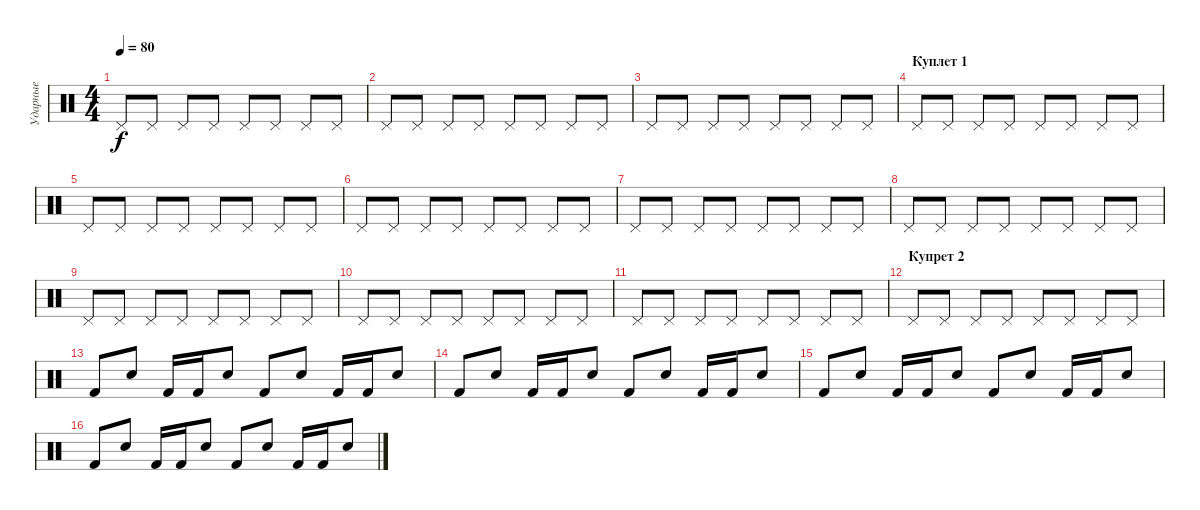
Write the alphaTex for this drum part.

\track ("Ударные" "Ударные") {instrument percussion}
\staff {score}
\articulation defaults
\ts (4 4)
\tempo 80
\clef neutral
\ks c "Pedal Hi-Hat (hit)".8{dy f} "Pedal Hi-Hat (hit)".8 "Pedal Hi-Hat (hit)".8 "Pedal Hi-Hat (hit)".8 "Pedal Hi-Hat (hit)".8 "Pedal Hi-Hat (hit)".8 "Pedal Hi-Hat (hit)".8 "Pedal Hi-Hat (hit)".8
|
"Pedal Hi-Hat (hit)".8 "Pedal Hi-Hat (hit)".8 "Pedal Hi-Hat (hit)".8 "Pedal Hi-Hat (hit)".8 "Pedal Hi-Hat (hit)".8 "Pedal Hi-Hat (hit)".8 "Pedal Hi-Hat (hit)".8 "Pedal Hi-Hat (hit)".8 |
"Pedal Hi-Hat (hit)".8 "Pedal Hi-Hat (hit)".8 "Pedal Hi-Hat (hit)".8 "Pedal Hi-Hat (hit)".8 "Pedal Hi-Hat (hit)".8 "Pedal Hi-Hat (hit)".8 "Pedal Hi-Hat (hit)".8 "Pedal Hi-Hat (hit)".8 |
\section ("" "Куплет 1")
"Pedal Hi-Hat (hit)".8 "Pedal Hi-Hat (hit)".8 "Pedal Hi-Hat (hit)".8 "Pedal Hi-Hat (hit)".8 "Pedal Hi-Hat (hit)".8 "Pedal Hi-Hat (hit)".8 "Pedal Hi-Hat (hit)".8 "Pedal Hi-Hat (hit)".8 |
"Pedal Hi-Hat (hit)".8 "Pedal Hi-Hat (hit)".8 "Pedal Hi-Hat (hit)".8 "Pedal Hi-Hat (hit)".8 "Pedal Hi-Hat (hit)".8 "Pedal Hi-Hat (hit)".8 "Pedal Hi-Hat (hit)".8 "Pedal Hi-Hat (hit)".8 |
"Pedal Hi-Hat (hit)".8 "Pedal Hi-Hat (hit)".8 "Pedal Hi-Hat (hit)".8 "Pedal Hi-Hat (hit)".8 "Pedal Hi-Hat (hit)".8 "Pedal Hi-Hat (hit)".8 "Pedal Hi-Hat (hit)".8 "Pedal Hi-Hat (hit)".8 |
"Pedal Hi-Hat (hit)".8 "Pedal Hi-Hat (hit)".8 "Pedal Hi-Hat (hit)".8 "Pedal Hi-Hat (hit)".8 "Pedal Hi-Hat (hit)".8 "Pedal Hi-Hat (hit)".8 "Pedal Hi-Hat (hit)".8 "Pedal Hi-Hat (hit)".8 |
"Pedal Hi-Hat (hit)".8 "Pedal Hi-Hat (hit)".8 "Pedal Hi-Hat (hit)".8 "Pedal Hi-Hat (hit)".8 "Pedal Hi-Hat (hit)".8 "Pedal Hi-Hat (hit)".8 "Pedal Hi-Hat (hit)".8 "Pedal Hi-Hat (hit)".8 |
"Pedal Hi-Hat (hit)".8 "Pedal Hi-Hat (hit)".8 "Pedal Hi-Hat (hit)".8 "Pedal Hi-Hat (hit)".8 "Pedal Hi-Hat (hit)".8 "Pedal Hi-Hat (hit)".8 "Pedal Hi-Hat (hit)".8 "Pedal Hi-Hat (hit)".8 |
"Pedal Hi-Hat (hit)".8 "Pedal Hi-Hat (hit)".8 "Pedal Hi-Hat (hit)".8 "Pedal Hi-Hat (hit)".8 "Pedal Hi-Hat (hit)".8 "Pedal Hi-Hat (hit)".8 "Pedal Hi-Hat (hit)".8 "Pedal Hi-Hat (hit)".8 |
"Pedal Hi-Hat (hit)".8 "Pedal Hi-Hat (hit)".8 "Pedal Hi-Hat (hit)".8 "Pedal Hi-Hat (hit)".8 "Pedal Hi-Hat (hit)".8 "Pedal Hi-Hat (hit)".8 "Pedal Hi-Hat (hit)".8 "Pedal Hi-Hat (hit)".8 |
\section ("" "Купрет 2")
"Pedal Hi-Hat (hit)".8 "Pedal Hi-Hat (hit)".8 "Pedal Hi-Hat (hit)".8 "Pedal Hi-Hat (hit)".8 "Pedal Hi-Hat (hit)".8 "Pedal Hi-Hat (hit)".8 "Pedal Hi-Hat (hit)".8 "Pedal Hi-Hat (hit)".8 |
"Kick (hit) 2".8 "Snare (hit) 2".8 "Kick (hit) 2".16 "Kick (hit) 2".16 "Snare (hit) 2".8 "Kick (hit) 2".8 "Snare (hit) 2".8 "Kick (hit) 2".16 "Kick (hit) 2".16 "Snare (hit) 2".8 |
"Kick (hit) 2".8 "Snare (hit) 2".8 "Kick (hit) 2".16 "Kick (hit) 2".16 "Snare (hit) 2".8 "Kick (hit) 2".8 "Snare (hit) 2".8 "Kick (hit) 2".16 "Kick (hit) 2".16 "Snare (hit) 2".8 |
"Kick (hit) 2".8 "Snare (hit) 2".8 "Kick (hit) 2".16 "Kick (hit) 2".16 "Snare (hit) 2".8 "Kick (hit) 2".8 "Snare (hit) 2".8 "Kick (hit) 2".16 "Kick (hit) 2".16 "Snare (hit) 2".8 |
"Kick (hit) 2".8 "Snare (hit) 2".8 "Kick (hit) 2".16 "Kick (hit) 2".16 "Snare (hit) 2".8 "Kick (hit) 2".8 "Snare (hit) 2".8 "Kick (hit) 2".16 "Kick (hit) 2".16 "Snare (hit) 2".8
